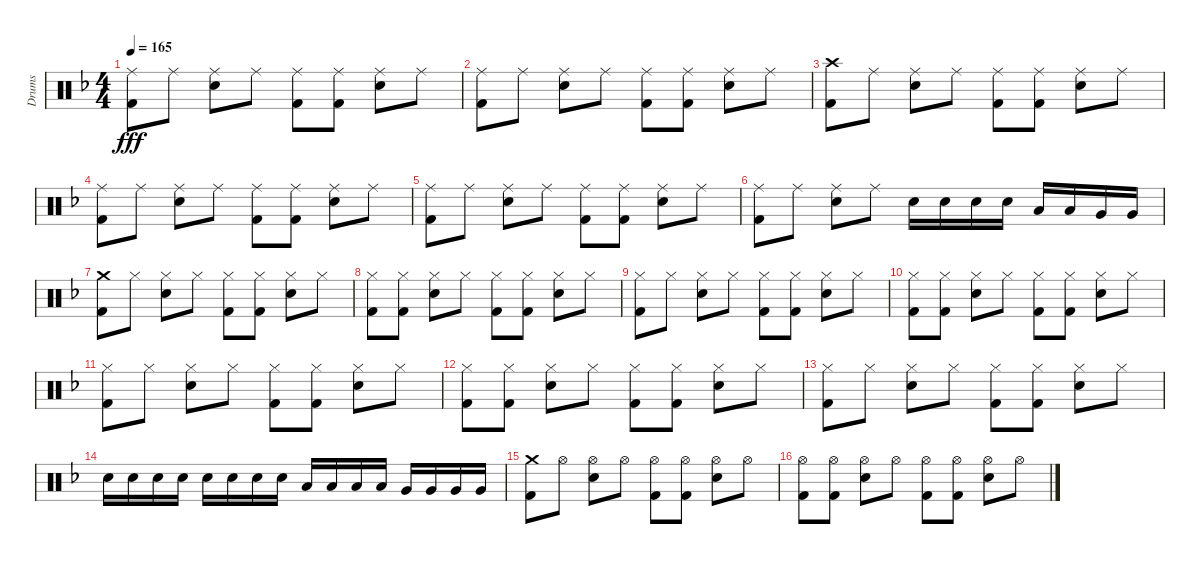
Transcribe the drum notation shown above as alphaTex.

\track ("Drums" "Drums") {instrument percussion}
\staff {score}
\articulation defaults
\ts (4 4)
\tempo 165
\clef neutral
\ks f
("Ride (middle)" "Kick (hit) 2").8{dy fff} "Ride (middle)".8 ("Ride (middle)" "Electric Snare (hit)").8 "Ride (middle)".8 ("Ride (middle)" "Kick (hit) 2").8 ("Ride (middle)" "Kick (hit) 2").8 ("Ride (middle)" "Electric Snare (hit)").8 "Ride (middle)".8 |
("Ride (middle)" "Kick (hit) 2").8 "Ride (middle)".8 ("Ride (middle)" "Electric Snare (hit)").8 "Ride (middle)".8 ("Ride (middle)" "Kick (hit) 2").8 ("Ride (middle)" "Kick (hit) 2").8 ("Ride (middle)" "Electric Snare (hit)").8 "Ride (middle)".8 |
("Crash high (hit)" "Kick (hit) 2").8 "Ride (middle)".8 ("Ride (middle)" "Electric Snare (hit)").8 "Ride (middle)".8 ("Ride (middle)" "Kick (hit) 2").8 ("Ride (middle)" "Kick (hit) 2").8 ("Ride (middle)" "Electric Snare (hit)").8 "Ride (middle)".8 |
("Ride (middle)" "Kick (hit) 2").8 "Ride (middle)".8 ("Ride (middle)" "Electric Snare (hit)").8 "Ride (middle)".8 ("Ride (middle)" "Kick (hit) 2").8 ("Ride (middle)" "Kick (hit) 2").8 ("Ride (middle)" "Electric Snare (hit)").8 "Ride (middle)".8 |
("Ride (middle)" "Kick (hit) 2").8 "Ride (middle)".8 ("Ride (middle)" "Electric Snare (hit)").8 "Ride (middle)".8 ("Ride (middle)" "Kick (hit) 2").8 ("Ride (middle)" "Kick (hit) 2").8 ("Ride (middle)" "Electric Snare (hit)").8 "Ride (middle)".8 |
("Ride (middle)" "Kick (hit) 2").8 "Ride (middle)".8 ("Ride (middle)" "Electric Snare (hit)").8 "Ride (middle)".8 "Electric Snare (hit)".16 "Electric Snare (hit)".16 "Electric Snare (hit)".16 "Electric Snare (hit)".16 "Low Tom (hit)".16 "Low Tom (hit)".16 "Very Low Tom (hit)".16 "Very Low Tom (hit)".16 |
("Crash medium (hit)" "Kick (hit) 2").8 "Hi-Hat (closed)".8 ("Hi-Hat (closed)" "Electric Snare (hit)").8 "Hi-Hat (closed)".8 ("Hi-Hat (closed)" "Kick (hit) 2").8 ("Hi-Hat (closed)" "Kick (hit) 2").8 ("Hi-Hat (closed)" "Electric Snare (hit)").8 "Hi-Hat (closed)".8 |
("Hi-Hat (closed)" "Kick (hit) 2").8 ("Hi-Hat (closed)" "Kick (hit) 2").8 ("Hi-Hat (closed)" "Electric Snare (hit)").8 "Hi-Hat (closed)".8 ("Hi-Hat (closed)" "Kick (hit) 2").8 ("Hi-Hat (closed)" "Kick (hit) 2").8 ("Hi-Hat (closed)" "Electric Snare (hit)").8 "Hi-Hat (closed)".8 |
("Hi-Hat (closed)" "Kick (hit) 2").8 "Hi-Hat (closed)".8 ("Hi-Hat (closed)" "Electric Snare (hit)").8 "Hi-Hat (closed)".8 ("Hi-Hat (closed)" "Kick (hit) 2").8 ("Hi-Hat (closed)" "Kick (hit) 2").8 ("Hi-Hat (closed)" "Electric Snare (hit)").8 "Hi-Hat (closed)".8 |
("Hi-Hat (closed)" "Kick (hit) 2").8 ("Hi-Hat (closed)" "Kick (hit) 2").8 ("Hi-Hat (closed)" "Electric Snare (hit)").8 "Hi-Hat (closed)".8 ("Hi-Hat (closed)" "Kick (hit) 2").8 ("Hi-Hat (closed)" "Kick (hit) 2").8 ("Hi-Hat (closed)" "Electric Snare (hit)").8 "Hi-Hat (closed)".8 |
("Hi-Hat (closed)" "Kick (hit) 2").8 "Hi-Hat (closed)".8 ("Hi-Hat (closed)" "Electric Snare (hit)").8 "Hi-Hat (closed)".8 ("Hi-Hat (closed)" "Kick (hit) 2").8 ("Hi-Hat (closed)" "Kick (hit) 2").8 ("Hi-Hat (closed)" "Electric Snare (hit)").8 "Hi-Hat (closed)".8 |
("Hi-Hat (closed)" "Kick (hit) 2").8 ("Hi-Hat (closed)" "Kick (hit) 2").8 ("Hi-Hat (closed)" "Electric Snare (hit)").8 "Hi-Hat (closed)".8 ("Hi-Hat (closed)" "Kick (hit) 2").8 ("Hi-Hat (closed)" "Kick (hit) 2").8 ("Hi-Hat (closed)" "Electric Snare (hit)").8 "Hi-Hat (closed)".8 |
("Hi-Hat (closed)" "Kick (hit) 2").8 "Hi-Hat (closed)".8 ("Hi-Hat (closed)" "Electric Snare (hit)").8 "Hi-Hat (closed)".8 ("Hi-Hat (closed)" "Kick (hit) 2").8 ("Hi-Hat (closed)" "Kick (hit) 2").8 ("Hi-Hat (closed)" "Electric Snare (hit)").8 "Hi-Hat (closed)".8 |
"Electric Snare (hit)".16 "Electric Snare (hit)".16 "Electric Snare (hit)".16 "Electric Snare (hit)".16 "Electric Snare (hit)".16 "Electric Snare (hit)".16 "Electric Snare (hit)".16 "Electric Snare (hit)".16 "Low Tom (hit)".16 "Low Tom (hit)".16 "Low Tom (hit)".16 "Low Tom (hit)".16 "Very Low Tom (hit)".16 "Very Low Tom (hit)".16 "Very Low Tom (hit)".16 "Very Low Tom (hit)".16 |
("Crash medium (hit)" "Kick (hit) 2").8 "Hi-Hat (open)".8 ("Hi-Hat (open)" "Electric Snare (hit)").8 "Hi-Hat (open)".8 ("Hi-Hat (open)" "Kick (hit) 2").8 ("Hi-Hat (open)" "Kick (hit) 2").8 ("Hi-Hat (open)" "Electric Snare (hit)").8 "Hi-Hat (open)".8 |
("Hi-Hat (open)" "Kick (hit) 2").8 ("Hi-Hat (open)" "Kick (hit) 2").8 ("Hi-Hat (open)" "Electric Snare (hit)").8 "Hi-Hat (open)".8 ("Hi-Hat (open)" "Kick (hit) 2").8 ("Hi-Hat (open)" "Kick (hit) 2").8 ("Hi-Hat (open)" "Electric Snare (hit)").8 "Hi-Hat (open)".8
